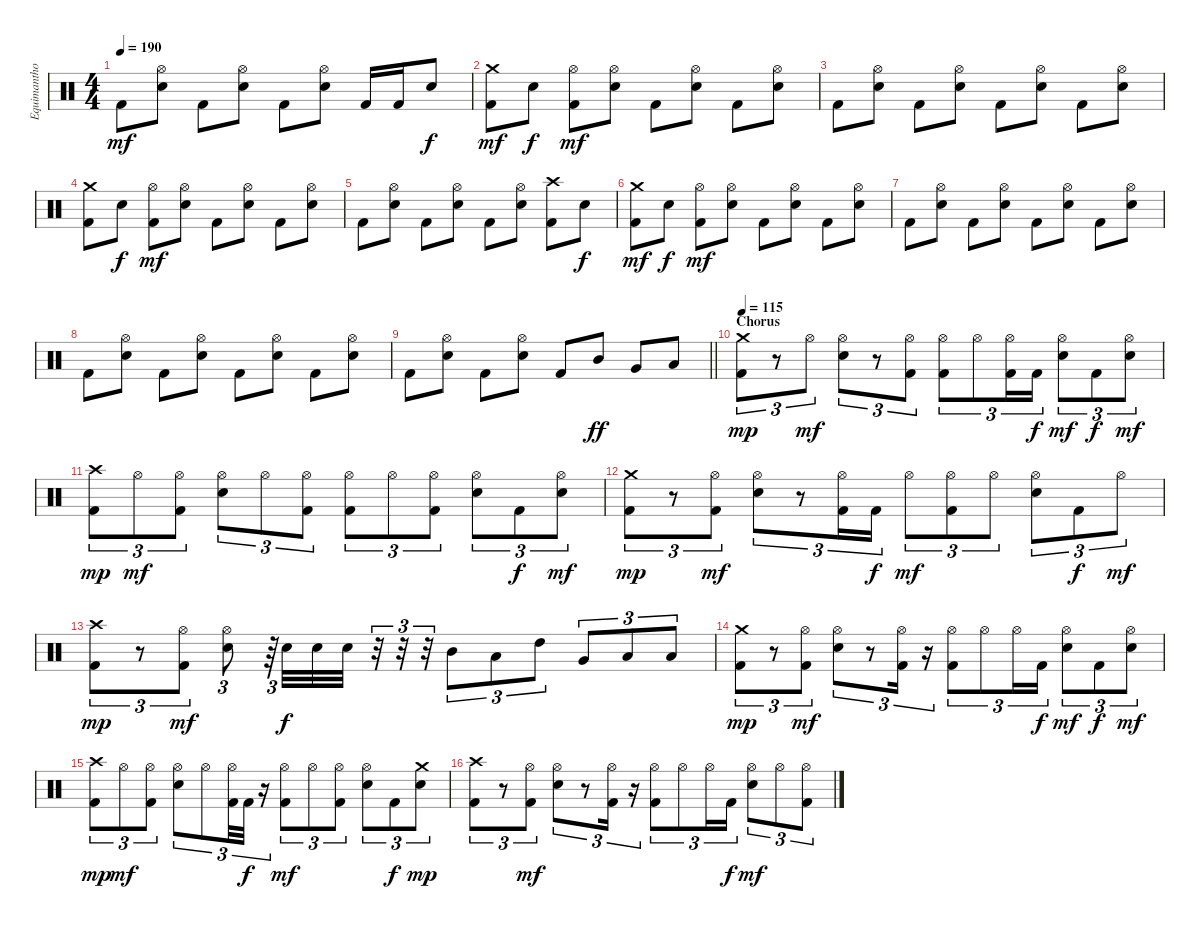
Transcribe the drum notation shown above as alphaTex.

\track ("Equimanthorn" "Equimantho") {instrument percussion}
\staff {score}
\articulation defaults
\ts (4 4)
\tempo 190
\clef neutral
\ks c "Kick (hit) 2".8{dy mf}
("Hi-Hat (open)" "Electric Snare (hit)").8 "Kick (hit) 2".8 ("Hi-Hat (open)" "Electric Snare (hit)").8 "Kick (hit) 2".8 ("Hi-Hat (open)" "Electric Snare (hit)").8 "Kick (hit) 2".16 "Kick (hit) 2".16 "Electric Snare (hit)".8{dy f} |
("Crash medium (hit)" "Kick (hit) 2").8{dy mf} "Electric Snare (hit)".8{dy f} ("Hi-Hat (open)" "Kick (hit) 2").8{dy mf} ("Hi-Hat (open)" "Electric Snare (hit)").8 "Kick (hit) 2".8 ("Hi-Hat (open)" "Electric Snare (hit)").8 "Kick (hit) 2".8 ("Hi-Hat (open)" "Electric Snare (hit)").8 |
"Kick (hit) 2".8 ("Hi-Hat (open)" "Electric Snare (hit)").8 "Kick (hit) 2".8 ("Hi-Hat (open)" "Electric Snare (hit)").8 "Kick (hit) 2".8 ("Hi-Hat (open)" "Electric Snare (hit)").8 "Kick (hit) 2".8 ("Hi-Hat (open)" "Electric Snare (hit)").8 |
("Crash medium (hit)" "Kick (hit) 2").8 "Electric Snare (hit)".8{dy f} ("Hi-Hat (open)" "Kick (hit) 2").8{dy mf} ("Hi-Hat (open)" "Electric Snare (hit)").8 "Kick (hit) 2".8 ("Hi-Hat (open)" "Electric Snare (hit)").8 "Kick (hit) 2".8 ("Hi-Hat (open)" "Electric Snare (hit)").8 |
"Kick (hit) 2".8 ("Hi-Hat (open)" "Electric Snare (hit)").8 "Kick (hit) 2".8 ("Hi-Hat (open)" "Electric Snare (hit)").8 "Kick (hit) 2".8 ("Hi-Hat (open)" "Electric Snare (hit)").8 ("Crash high (hit)" "Kick (hit) 2").8 "Electric Snare (hit)".8{dy f} |
("Crash medium (hit)" "Kick (hit) 2").8{dy mf} "Electric Snare (hit)".8{dy f} ("Hi-Hat (open)" "Kick (hit) 2").8{dy mf} ("Hi-Hat (open)" "Electric Snare (hit)").8 "Kick (hit) 2".8 ("Hi-Hat (open)" "Electric Snare (hit)").8 "Kick (hit) 2".8 ("Hi-Hat (open)" "Electric Snare (hit)").8 |
"Kick (hit) 2".8 ("Hi-Hat (open)" "Electric Snare (hit)").8 "Kick (hit) 2".8 ("Hi-Hat (open)" "Electric Snare (hit)").8 "Kick (hit) 2".8 ("Hi-Hat (open)" "Electric Snare (hit)").8 "Kick (hit) 2".8 ("Hi-Hat (open)" "Electric Snare (hit)").8 |
"Kick (hit) 2".8 ("Hi-Hat (open)" "Electric Snare (hit)").8 "Kick (hit) 2".8 ("Hi-Hat (open)" "Electric Snare (hit)").8 "Kick (hit) 2".8 ("Hi-Hat (open)" "Electric Snare (hit)").8 "Kick (hit) 2".8 ("Hi-Hat (open)" "Electric Snare (hit)").8 |
\barLineRight lightlight "Kick (hit) 2".8
("Hi-Hat (open)" "Electric Snare (hit)").8 "Kick (hit) 2".8 ("Hi-Hat (open)" "Electric Snare (hit)").8 "Kick (hit) 2".8 "Mid Tom (hit)".8{dy ff} "Very Low Tom (hit)".8 "Low Floor Tom (hit)".8 |
\section ("" "Chorus")
\tempo 115
("Crash medium (hit)" "Kick (hit) 2").8{tu (3 2) dy mp} r.8{tu (3 2)} "Hi-Hat (open)".8{tu (3 2) dy mf} ("Hi-Hat (open)" "Electric Snare (hit)").8{tu (3 2)} r.8{tu (3 2)} ("Hi-Hat (open)" "Kick (hit) 2").8{tu (3 2)} ("Hi-Hat (open)" "Kick (hit) 2").8{tu (3 2)} "Hi-Hat (open)".8{tu (3 2)} ("Hi-Hat (open)" "Kick (hit) 2").16{tu (3 2)} "Kick (hit) 2".16{tu (3 2) dy f} ("Hi-Hat (open)" "Electric Snare (hit)").8{tu (3 2) dy mf} "Kick (hit) 2".8{tu (3 2) dy f} ("Hi-Hat (open)" "Electric Snare (hit)").8{tu (3 2) dy mf} |
("Crash high (hit)" "Kick (hit) 2").8{tu (3 2) dy mp} "Hi-Hat (open)".8{tu (3 2) dy mf} ("Hi-Hat (open)" "Kick (hit) 2").8{tu (3 2)} ("Hi-Hat (open)" "Electric Snare (hit)").8{tu (3 2)} "Hi-Hat (open)".8{tu (3 2)} ("Hi-Hat (open)" "Kick (hit) 2").8{tu (3 2)} ("Hi-Hat (open)" "Kick (hit) 2").8{tu (3 2)} "Hi-Hat (open)".8{tu (3 2)} ("Hi-Hat (open)" "Kick (hit) 2").8{tu (3 2)} ("Hi-Hat (open)" "Electric Snare (hit)").8{tu (3 2)} "Kick (hit) 2".8{tu (3 2) dy f} ("Hi-Hat (open)" "Electric Snare (hit)").8{tu (3 2) dy mf} |
("Crash medium (hit)" "Kick (hit) 2").8{tu (3 2) dy mp} r.8{tu (3 2)} ("Hi-Hat (open)" "Kick (hit) 2").8{tu (3 2) dy mf} ("Hi-Hat (open)" "Electric Snare (hit)").8{tu (3 2)} r.8{tu (3 2)} ("Hi-Hat (open)" "Kick (hit) 2").16{tu (3 2)} "Kick (hit) 2".16{tu (3 2) dy f} "Hi-Hat (open)".8{tu (3 2) dy mf} ("Hi-Hat (open)" "Kick (hit) 2").8{tu (3 2)} "Hi-Hat (open)".8{tu (3 2)} ("Hi-Hat (open)" "Electric Snare (hit)").8{tu (3 2)} "Kick (hit) 2".8{tu (3 2) dy f} "Hi-Hat (open)".8{tu (3 2) dy mf} |
("Crash high (hit)" "Kick (hit) 2").8{tu (3 2) dy mp} r.8{tu (3 2)} ("Hi-Hat (open)" "Kick (hit) 2").8{tu (3 2) dy mf} ("Hi-Hat (open)" "Electric Snare (hit)").8{tu (3 2)} r.64{tu (3 2)} "Electric Snare (hit)".32{dy f} "Electric Snare (hit)".32 "Electric Snare (hit)".32 r.32{tu (3 2)} r.32{tu (3 2)} r.32{tu (3 2)} "Mid Tom (hit)".8{tu (3 2)} "Low Tom (hit)".8{tu (3 2)} "High Tom (hit)".8{tu (3 2)} "Very Low Tom (hit)".8{tu (3 2)} "Low Tom (hit)".8{tu (3 2)} "Low Floor Tom (hit)".8{tu (3 2)} |
("Crash medium (hit)" "Kick (hit) 2").8{tu (3 2) dy mp} r.8{tu (3 2)} ("Hi-Hat (open)" "Kick (hit) 2").8{tu (3 2) dy mf} ("Hi-Hat (open)" "Electric Snare (hit)").8{tu (3 2)} r.8{tu (3 2)} ("Hi-Hat (open)" "Kick (hit) 2").16{tu (3 2)} r.16{tu (3 2)} ("Hi-Hat (open)" "Kick (hit) 2").8{tu (3 2)} "Hi-Hat (open)".8{tu (3 2)} "Hi-Hat (open)".16{tu (3 2)} "Kick (hit) 2".16{tu (3 2) dy f} ("Hi-Hat (open)" "Electric Snare (hit)").8{tu (3 2) dy mf} "Kick (hit) 2".8{tu (3 2) dy f} ("Hi-Hat (open)" "Electric Snare (hit)").8{tu (3 2) dy mf} |
("Crash high (hit)" "Kick (hit) 2").8{tu (3 2) dy mp} "Hi-Hat (open)".8{tu (3 2) dy mf} ("Hi-Hat (open)" "Kick (hit) 2").8{tu (3 2)} ("Hi-Hat (open)" "Electric Snare (hit)").8{tu (3 2)} "Hi-Hat (open)".8{tu (3 2)} ("Hi-Hat (open)" "Kick (hit) 2").32{tu (3 2)} "Kick (hit) 2".32{tu (3 2) dy f} r.16{tu (3 2)} ("Hi-Hat (open)" "Kick (hit) 2").8{tu (3 2) dy mf} "Hi-Hat (open)".8{tu (3 2)} ("Hi-Hat (open)" "Kick (hit) 2").8{tu (3 2)} ("Hi-Hat (open)" "Electric Snare (hit)").8{tu (3 2)} "Kick (hit) 2".8{tu (3 2) dy f} ("Crash medium (hit)" "Electric Snare (hit)").8{tu (3 2) dy mp} |
("Crash high (hit)" "Kick (hit) 2").8{tu (3 2)} r.8{tu (3 2)} ("Hi-Hat (open)" "Kick (hit) 2").8{tu (3 2) dy mf} ("Hi-Hat (open)" "Electric Snare (hit)").8{tu (3 2)} r.8{tu (3 2)} ("Hi-Hat (open)" "Kick (hit) 2").16{tu (3 2)} r.16{tu (3 2)} ("Hi-Hat (open)" "Kick (hit) 2").8{tu (3 2)} "Hi-Hat (open)".8{tu (3 2)} "Hi-Hat (open)".16{tu (3 2)} "Kick (hit) 2".16{tu (3 2) dy f} ("Hi-Hat (open)" "Electric Snare (hit)").8{tu (3 2) dy mf} "Hi-Hat (open)".8{tu (3 2)} ("Hi-Hat (open)" "Kick (hit) 2").8{tu (3 2)}
